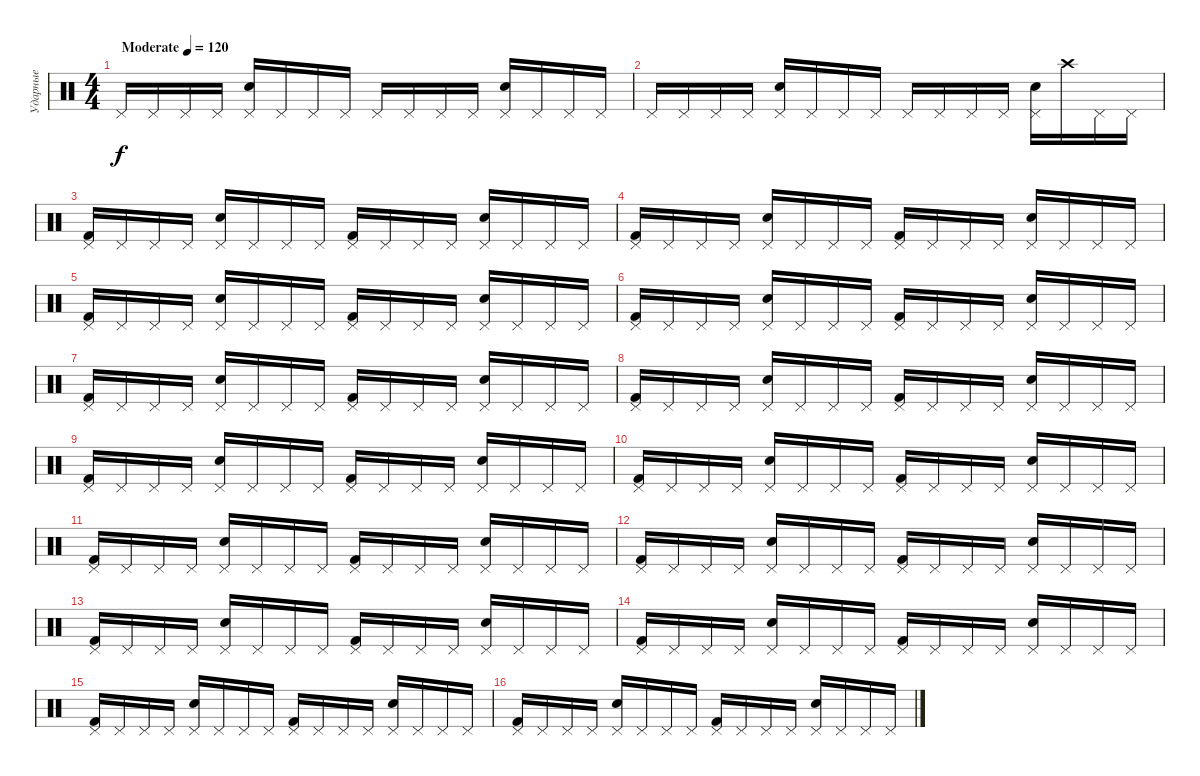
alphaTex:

\track ("Ударные" "Ударные") {instrument percussion}
\staff {score}
\articulation defaults
\ts (4 4)
\tempo (120 "Moderate")
\clef neutral
\ks c "Pedal Hi-Hat (hit)".16{dy f} "Pedal Hi-Hat (hit)".16 "Pedal Hi-Hat (hit)".16 "Pedal Hi-Hat (hit)".16
("Pedal Hi-Hat (hit)" "Electric Snare (hit)").16 "Pedal Hi-Hat (hit)".16 "Pedal Hi-Hat (hit)".16 "Pedal Hi-Hat (hit)".16 "Pedal Hi-Hat (hit)".16 "Pedal Hi-Hat (hit)".16 "Pedal Hi-Hat (hit)".16 "Pedal Hi-Hat (hit)".16 ("Pedal Hi-Hat (hit)" "Electric Snare (hit)").16 "Pedal Hi-Hat (hit)".16 "Pedal Hi-Hat (hit)".16 "Pedal Hi-Hat (hit)".16 |
"Pedal Hi-Hat (hit)".16 "Pedal Hi-Hat (hit)".16 "Pedal Hi-Hat (hit)".16 "Pedal Hi-Hat (hit)".16 ("Pedal Hi-Hat (hit)" "Electric Snare (hit)").16 "Pedal Hi-Hat (hit)".16 "Pedal Hi-Hat (hit)".16 "Pedal Hi-Hat (hit)".16 "Pedal Hi-Hat (hit)".16 "Pedal Hi-Hat (hit)".16 "Pedal Hi-Hat (hit)".16 "Pedal Hi-Hat (hit)".16 ("Pedal Hi-Hat (hit)" "Electric Snare (hit)").16 "Crash high (hit)".16 "Pedal Hi-Hat (hit)".16 "Pedal Hi-Hat (hit)".16 |
("Pedal Hi-Hat (hit)" "Kick (hit) 2").16 "Pedal Hi-Hat (hit)".16 "Pedal Hi-Hat (hit)".16 "Pedal Hi-Hat (hit)".16 ("Pedal Hi-Hat (hit)" "Electric Snare (hit)").16 "Pedal Hi-Hat (hit)".16 "Pedal Hi-Hat (hit)".16 "Pedal Hi-Hat (hit)".16 ("Pedal Hi-Hat (hit)" "Kick (hit) 2").16 "Pedal Hi-Hat (hit)".16 "Pedal Hi-Hat (hit)".16 "Pedal Hi-Hat (hit)".16 ("Pedal Hi-Hat (hit)" "Electric Snare (hit)").16 "Pedal Hi-Hat (hit)".16 "Pedal Hi-Hat (hit)".16 "Pedal Hi-Hat (hit)".16 |
("Pedal Hi-Hat (hit)" "Kick (hit) 2").16 "Pedal Hi-Hat (hit)".16 "Pedal Hi-Hat (hit)".16 "Pedal Hi-Hat (hit)".16 ("Pedal Hi-Hat (hit)" "Electric Snare (hit)").16 "Pedal Hi-Hat (hit)".16 "Pedal Hi-Hat (hit)".16 "Pedal Hi-Hat (hit)".16 ("Pedal Hi-Hat (hit)" "Kick (hit) 2").16 "Pedal Hi-Hat (hit)".16 "Pedal Hi-Hat (hit)".16 "Pedal Hi-Hat (hit)".16 ("Pedal Hi-Hat (hit)" "Electric Snare (hit)").16 "Pedal Hi-Hat (hit)".16 "Pedal Hi-Hat (hit)".16 "Pedal Hi-Hat (hit)".16 |
("Pedal Hi-Hat (hit)" "Kick (hit) 2").16 "Pedal Hi-Hat (hit)".16 "Pedal Hi-Hat (hit)".16 "Pedal Hi-Hat (hit)".16 ("Pedal Hi-Hat (hit)" "Electric Snare (hit)").16 "Pedal Hi-Hat (hit)".16 "Pedal Hi-Hat (hit)".16 "Pedal Hi-Hat (hit)".16 ("Pedal Hi-Hat (hit)" "Kick (hit) 2").16 "Pedal Hi-Hat (hit)".16 "Pedal Hi-Hat (hit)".16 "Pedal Hi-Hat (hit)".16 ("Pedal Hi-Hat (hit)" "Electric Snare (hit)").16 "Pedal Hi-Hat (hit)".16 "Pedal Hi-Hat (hit)".16 "Pedal Hi-Hat (hit)".16 |
("Pedal Hi-Hat (hit)" "Kick (hit) 2").16 "Pedal Hi-Hat (hit)".16 "Pedal Hi-Hat (hit)".16 "Pedal Hi-Hat (hit)".16 ("Pedal Hi-Hat (hit)" "Electric Snare (hit)").16 "Pedal Hi-Hat (hit)".16 "Pedal Hi-Hat (hit)".16 "Pedal Hi-Hat (hit)".16 ("Pedal Hi-Hat (hit)" "Kick (hit) 2").16 "Pedal Hi-Hat (hit)".16 "Pedal Hi-Hat (hit)".16 "Pedal Hi-Hat (hit)".16 ("Pedal Hi-Hat (hit)" "Electric Snare (hit)").16 "Pedal Hi-Hat (hit)".16 "Pedal Hi-Hat (hit)".16 "Pedal Hi-Hat (hit)".16 |
("Pedal Hi-Hat (hit)" "Kick (hit) 2").16 "Pedal Hi-Hat (hit)".16 "Pedal Hi-Hat (hit)".16 "Pedal Hi-Hat (hit)".16 ("Pedal Hi-Hat (hit)" "Electric Snare (hit)").16 "Pedal Hi-Hat (hit)".16 "Pedal Hi-Hat (hit)".16 "Pedal Hi-Hat (hit)".16 ("Pedal Hi-Hat (hit)" "Kick (hit) 2").16 "Pedal Hi-Hat (hit)".16 "Pedal Hi-Hat (hit)".16 "Pedal Hi-Hat (hit)".16 ("Pedal Hi-Hat (hit)" "Electric Snare (hit)").16 "Pedal Hi-Hat (hit)".16 "Pedal Hi-Hat (hit)".16 "Pedal Hi-Hat (hit)".16 |
("Pedal Hi-Hat (hit)" "Kick (hit) 2").16 "Pedal Hi-Hat (hit)".16 "Pedal Hi-Hat (hit)".16 "Pedal Hi-Hat (hit)".16 ("Pedal Hi-Hat (hit)" "Electric Snare (hit)").16 "Pedal Hi-Hat (hit)".16 "Pedal Hi-Hat (hit)".16 "Pedal Hi-Hat (hit)".16 ("Pedal Hi-Hat (hit)" "Kick (hit) 2").16 "Pedal Hi-Hat (hit)".16 "Pedal Hi-Hat (hit)".16 "Pedal Hi-Hat (hit)".16 ("Pedal Hi-Hat (hit)" "Electric Snare (hit)").16 "Pedal Hi-Hat (hit)".16 "Pedal Hi-Hat (hit)".16 "Pedal Hi-Hat (hit)".16 |
("Pedal Hi-Hat (hit)" "Kick (hit) 2").16 "Pedal Hi-Hat (hit)".16 "Pedal Hi-Hat (hit)".16 "Pedal Hi-Hat (hit)".16 ("Pedal Hi-Hat (hit)" "Electric Snare (hit)").16 "Pedal Hi-Hat (hit)".16 "Pedal Hi-Hat (hit)".16 "Pedal Hi-Hat (hit)".16 ("Pedal Hi-Hat (hit)" "Kick (hit) 2").16 "Pedal Hi-Hat (hit)".16 "Pedal Hi-Hat (hit)".16 "Pedal Hi-Hat (hit)".16 ("Pedal Hi-Hat (hit)" "Electric Snare (hit)").16 "Pedal Hi-Hat (hit)".16 "Pedal Hi-Hat (hit)".16 "Pedal Hi-Hat (hit)".16 |
("Pedal Hi-Hat (hit)" "Kick (hit) 2").16 "Pedal Hi-Hat (hit)".16 "Pedal Hi-Hat (hit)".16 "Pedal Hi-Hat (hit)".16 ("Pedal Hi-Hat (hit)" "Electric Snare (hit)").16 "Pedal Hi-Hat (hit)".16 "Pedal Hi-Hat (hit)".16 "Pedal Hi-Hat (hit)".16 ("Pedal Hi-Hat (hit)" "Kick (hit) 2").16 "Pedal Hi-Hat (hit)".16 "Pedal Hi-Hat (hit)".16 "Pedal Hi-Hat (hit)".16 ("Pedal Hi-Hat (hit)" "Electric Snare (hit)").16 "Pedal Hi-Hat (hit)".16 "Pedal Hi-Hat (hit)".16 "Pedal Hi-Hat (hit)".16 |
("Pedal Hi-Hat (hit)" "Kick (hit) 2").16 "Pedal Hi-Hat (hit)".16 "Pedal Hi-Hat (hit)".16 "Pedal Hi-Hat (hit)".16 ("Pedal Hi-Hat (hit)" "Electric Snare (hit)").16 "Pedal Hi-Hat (hit)".16 "Pedal Hi-Hat (hit)".16 "Pedal Hi-Hat (hit)".16 ("Pedal Hi-Hat (hit)" "Kick (hit) 2").16 "Pedal Hi-Hat (hit)".16 "Pedal Hi-Hat (hit)".16 "Pedal Hi-Hat (hit)".16 ("Pedal Hi-Hat (hit)" "Electric Snare (hit)").16 "Pedal Hi-Hat (hit)".16 "Pedal Hi-Hat (hit)".16 "Pedal Hi-Hat (hit)".16 |
("Pedal Hi-Hat (hit)" "Kick (hit) 2").16 "Pedal Hi-Hat (hit)".16 "Pedal Hi-Hat (hit)".16 "Pedal Hi-Hat (hit)".16 ("Pedal Hi-Hat (hit)" "Electric Snare (hit)").16 "Pedal Hi-Hat (hit)".16 "Pedal Hi-Hat (hit)".16 "Pedal Hi-Hat (hit)".16 ("Pedal Hi-Hat (hit)" "Kick (hit) 2").16 "Pedal Hi-Hat (hit)".16 "Pedal Hi-Hat (hit)".16 "Pedal Hi-Hat (hit)".16 ("Pedal Hi-Hat (hit)" "Electric Snare (hit)").16 "Pedal Hi-Hat (hit)".16 "Pedal Hi-Hat (hit)".16 "Pedal Hi-Hat (hit)".16 |
("Pedal Hi-Hat (hit)" "Kick (hit) 2").16 "Pedal Hi-Hat (hit)".16 "Pedal Hi-Hat (hit)".16 "Pedal Hi-Hat (hit)".16 ("Pedal Hi-Hat (hit)" "Electric Snare (hit)").16 "Pedal Hi-Hat (hit)".16 "Pedal Hi-Hat (hit)".16 "Pedal Hi-Hat (hit)".16 ("Pedal Hi-Hat (hit)" "Kick (hit) 2").16 "Pedal Hi-Hat (hit)".16 "Pedal Hi-Hat (hit)".16 "Pedal Hi-Hat (hit)".16 ("Pedal Hi-Hat (hit)" "Electric Snare (hit)").16 "Pedal Hi-Hat (hit)".16 "Pedal Hi-Hat (hit)".16 "Pedal Hi-Hat (hit)".16 |
("Pedal Hi-Hat (hit)" "Kick (hit) 2").16 "Pedal Hi-Hat (hit)".16 "Pedal Hi-Hat (hit)".16 "Pedal Hi-Hat (hit)".16 ("Pedal Hi-Hat (hit)" "Electric Snare (hit)").16 "Pedal Hi-Hat (hit)".16 "Pedal Hi-Hat (hit)".16 "Pedal Hi-Hat (hit)".16 ("Pedal Hi-Hat (hit)" "Kick (hit) 2").16 "Pedal Hi-Hat (hit)".16 "Pedal Hi-Hat (hit)".16 "Pedal Hi-Hat (hit)".16 ("Pedal Hi-Hat (hit)" "Electric Snare (hit)").16 "Pedal Hi-Hat (hit)".16 "Pedal Hi-Hat (hit)".16 "Pedal Hi-Hat (hit)".16 |
("Pedal Hi-Hat (hit)" "Kick (hit) 2").16 "Pedal Hi-Hat (hit)".16 "Pedal Hi-Hat (hit)".16 "Pedal Hi-Hat (hit)".16 ("Pedal Hi-Hat (hit)" "Electric Snare (hit)").16 "Pedal Hi-Hat (hit)".16 "Pedal Hi-Hat (hit)".16 "Pedal Hi-Hat (hit)".16 ("Pedal Hi-Hat (hit)" "Kick (hit) 2").16 "Pedal Hi-Hat (hit)".16 "Pedal Hi-Hat (hit)".16 "Pedal Hi-Hat (hit)".16 ("Pedal Hi-Hat (hit)" "Electric Snare (hit)").16 "Pedal Hi-Hat (hit)".16 "Pedal Hi-Hat (hit)".16 "Pedal Hi-Hat (hit)".16 |
("Pedal Hi-Hat (hit)" "Kick (hit) 2").16 "Pedal Hi-Hat (hit)".16 "Pedal Hi-Hat (hit)".16 "Pedal Hi-Hat (hit)".16 ("Pedal Hi-Hat (hit)" "Electric Snare (hit)").16 "Pedal Hi-Hat (hit)".16 "Pedal Hi-Hat (hit)".16 "Pedal Hi-Hat (hit)".16 ("Pedal Hi-Hat (hit)" "Kick (hit) 2").16 "Pedal Hi-Hat (hit)".16 "Pedal Hi-Hat (hit)".16 "Pedal Hi-Hat (hit)".16 ("Pedal Hi-Hat (hit)" "Electric Snare (hit)").16 "Pedal Hi-Hat (hit)".16 "Pedal Hi-Hat (hit)".16 "Pedal Hi-Hat (hit)".16
